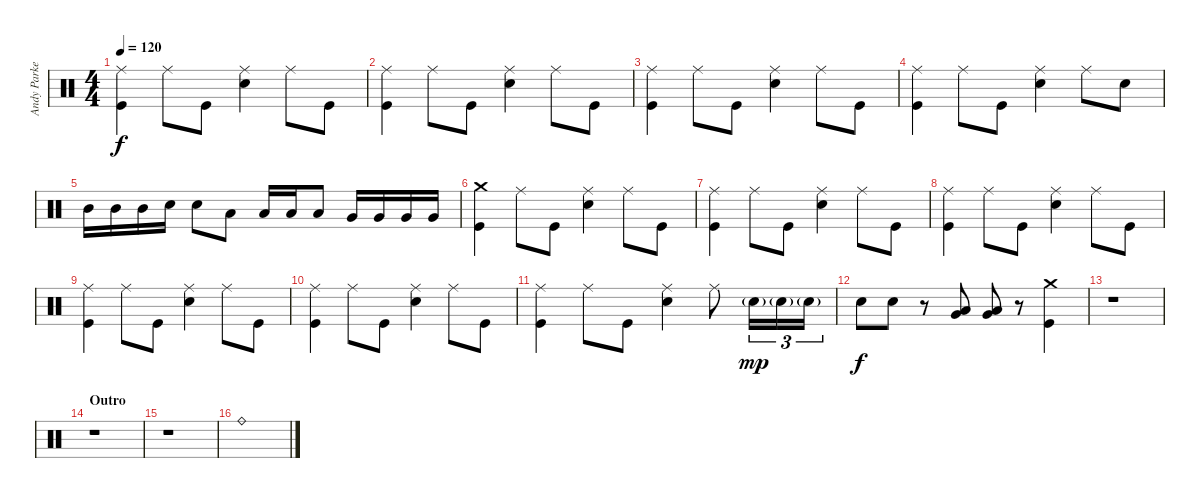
\track ("Andy Parker" "Andy Parke") {instrument percussion}
\staff {score}
\articulation defaults
\ts (4 4)
\tempo 120
\clef neutral
\ks c
("Ride (middle)" "Kick (hit)").4{dy f} "Ride (middle)".8 "Kick (hit)".8 ("Ride (middle)" "Snare (hit) 2").4 "Ride (middle)".8 "Kick (hit)".8 |
("Ride (middle)" "Kick (hit)").4 "Ride (middle)".8 "Kick (hit)".8 ("Ride (middle)" "Snare (hit) 2").4 "Ride (middle)".8 "Kick (hit)".8 |
("Ride (middle)" "Kick (hit)").4 "Ride (middle)".8 "Kick (hit)".8 ("Ride (middle)" "Snare (hit) 2").4 "Ride (middle)".8 "Kick (hit)".8 |
("Ride (middle)" "Kick (hit)").4 "Ride (middle)".8 "Kick (hit)".8 ("Ride (middle)" "Snare (hit) 2").4 "Ride (middle)".8 "Snare (hit) 2".8 |
"Mid Tom (hit)".16 "Mid Tom (hit)".16 "Mid Tom (hit)".16 "Snare (hit) 2".16 "Snare (hit) 2".8 "Low Tom (hit)".8 "Low Tom (hit)".16 "Low Tom (hit)".16 "Low Tom (hit)".8 "Very Low Tom (hit)".16 "Very Low Tom (hit)".16 "Very Low Tom (hit)".16 "Very Low Tom (hit)".16 |
("Crash medium (hit)" "Kick (hit)").4 "Ride (middle)".8 "Kick (hit)".8 ("Ride (middle)" "Snare (hit) 2").4 "Ride (middle)".8 "Kick (hit)".8 |
("Ride (middle)" "Kick (hit)").4 "Ride (middle)".8 "Kick (hit)".8 ("Ride (middle)" "Snare (hit) 2").4 "Ride (middle)".8 "Kick (hit)".8 |
("Ride (middle)" "Kick (hit)").4 "Ride (middle)".8 "Kick (hit)".8 ("Ride (middle)" "Snare (hit) 2").4 "Ride (middle)".8 "Kick (hit)".8 |
("Ride (middle)" "Kick (hit)").4 "Ride (middle)".8 "Kick (hit)".8 ("Ride (middle)" "Snare (hit) 2").4 "Ride (middle)".8 "Kick (hit)".8 |
("Ride (middle)" "Kick (hit)").4 "Ride (middle)".8 "Kick (hit)".8 ("Ride (middle)" "Snare (hit) 2").4 "Ride (middle)".8 "Kick (hit)".8 |
("Ride (middle)" "Kick (hit)").4 "Ride (middle)".8 "Kick (hit)".8 ("Ride (middle)" "Snare (hit) 2").4 "Ride (middle)".8 "Snare (hit) 2"{g}.16{tu (3 2) dy mp} "Snare (hit) 2"{g}.16{tu (3 2)} "Snare (hit) 2"{g}.16{tu (3 2)} |
"Snare (hit) 2".8{dy f} "Snare (hit) 2".8 r.8 ("Low Tom (hit)" "Very Low Tom (hit)").8 ("Low Tom (hit)" "Very Low Tom (hit)").8 r.8 ("Crash medium (hit)" "Kick (hit)").4 |
r.1 |
\section ("" "Outro")
r.1 |
r.1 |
"Ride (bell)".1
